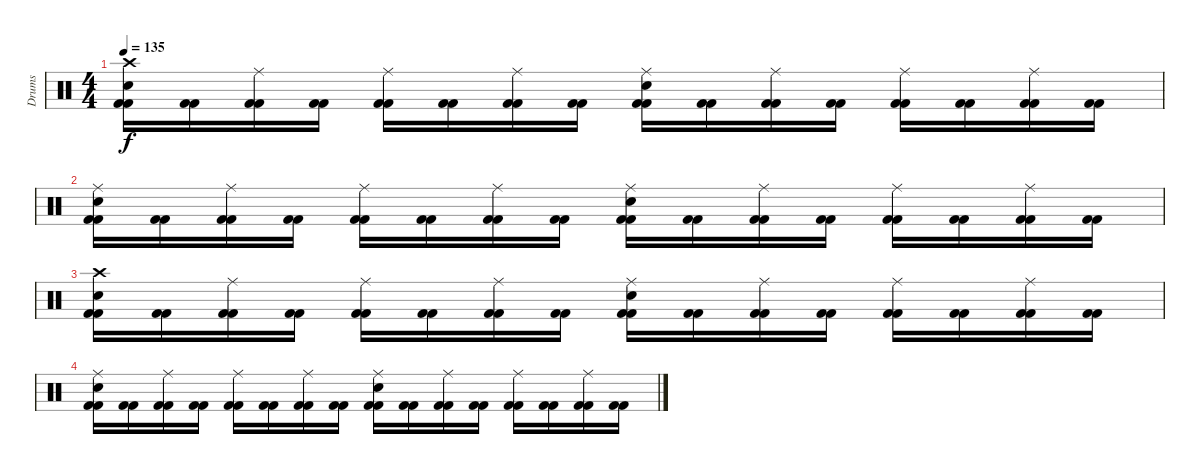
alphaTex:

\track ("Drums" "Drums") {instrument percussion}
\staff {score}
\articulation defaults
\ts (4 4)
\tempo 135
\clef neutral
\ks c
("Crash high (hit)" "Electric Snare (hit)" "Kick (hit) 2" "Kick (hit) 2").16{dy f} ("Kick (hit) 2" "Kick (hit) 2").16 ("Ride (middle)" "Kick (hit) 2" "Kick (hit) 2").16 ("Kick (hit) 2" "Kick (hit) 2").16 ("Ride (middle)" "Kick (hit) 2" "Kick (hit) 2").16 ("Kick (hit) 2" "Kick (hit) 2").16 ("Ride (middle)" "Kick (hit) 2" "Kick (hit) 2").16 ("Kick (hit) 2" "Kick (hit) 2").16 ("Ride (middle)" "Electric Snare (hit)" "Kick (hit) 2" "Kick (hit) 2").16 ("Kick (hit) 2" "Kick (hit) 2").16 ("Ride (middle)" "Kick (hit) 2" "Kick (hit) 2").16 ("Kick (hit) 2" "Kick (hit) 2").16 ("Ride (middle)" "Kick (hit) 2" "Kick (hit) 2").16 ("Kick (hit) 2" "Kick (hit) 2").16 ("Ride (middle)" "Kick (hit) 2" "Kick (hit) 2").16 ("Kick (hit) 2" "Kick (hit) 2").16 |
("Ride (middle)" "Electric Snare (hit)" "Kick (hit) 2" "Kick (hit) 2").16 ("Kick (hit) 2" "Kick (hit) 2").16 ("Ride (middle)" "Kick (hit) 2" "Kick (hit) 2").16 ("Kick (hit) 2" "Kick (hit) 2").16 ("Ride (middle)" "Kick (hit) 2" "Kick (hit) 2").16 ("Kick (hit) 2" "Kick (hit) 2").16 ("Ride (middle)" "Kick (hit) 2" "Kick (hit) 2").16 ("Kick (hit) 2" "Kick (hit) 2").16 ("Ride (middle)" "Electric Snare (hit)" "Kick (hit) 2" "Kick (hit) 2").16 ("Kick (hit) 2" "Kick (hit) 2").16 ("Ride (middle)" "Kick (hit) 2" "Kick (hit) 2").16 ("Kick (hit) 2" "Kick (hit) 2").16 ("Ride (middle)" "Kick (hit) 2" "Kick (hit) 2").16 ("Kick (hit) 2" "Kick (hit) 2").16 ("Ride (middle)" "Kick (hit) 2" "Kick (hit) 2").16 ("Kick (hit) 2" "Kick (hit) 2").16 |
("Crash high (hit)" "Electric Snare (hit)" "Kick (hit) 2" "Kick (hit) 2").16 ("Kick (hit) 2" "Kick (hit) 2").16 ("Ride (middle)" "Kick (hit) 2" "Kick (hit) 2").16 ("Kick (hit) 2" "Kick (hit) 2").16 ("Ride (middle)" "Kick (hit) 2" "Kick (hit) 2").16 ("Kick (hit) 2" "Kick (hit) 2").16 ("Ride (middle)" "Kick (hit) 2" "Kick (hit) 2").16 ("Kick (hit) 2" "Kick (hit) 2").16 ("Ride (middle)" "Electric Snare (hit)" "Kick (hit) 2" "Kick (hit) 2").16 ("Kick (hit) 2" "Kick (hit) 2").16 ("Ride (middle)" "Kick (hit) 2" "Kick (hit) 2").16 ("Kick (hit) 2" "Kick (hit) 2").16 ("Ride (middle)" "Kick (hit) 2" "Kick (hit) 2").16 ("Kick (hit) 2" "Kick (hit) 2").16 ("Ride (middle)" "Kick (hit) 2" "Kick (hit) 2").16 ("Kick (hit) 2" "Kick (hit) 2").16 |
("Ride (middle)" "Electric Snare (hit)" "Kick (hit) 2" "Kick (hit) 2").16 ("Kick (hit) 2" "Kick (hit) 2").16 ("Ride (middle)" "Kick (hit) 2" "Kick (hit) 2").16 ("Kick (hit) 2" "Kick (hit) 2").16 ("Ride (middle)" "Kick (hit) 2" "Kick (hit) 2").16 ("Kick (hit) 2" "Kick (hit) 2").16 ("Ride (middle)" "Kick (hit) 2" "Kick (hit) 2").16 ("Kick (hit) 2" "Kick (hit) 2").16 ("Ride (middle)" "Electric Snare (hit)" "Kick (hit) 2" "Kick (hit) 2").16 ("Kick (hit) 2" "Kick (hit) 2").16 ("Ride (middle)" "Kick (hit) 2" "Kick (hit) 2").16 ("Kick (hit) 2" "Kick (hit) 2").16 ("Ride (middle)" "Kick (hit) 2" "Kick (hit) 2").16 ("Kick (hit) 2" "Kick (hit) 2").16 ("Ride (middle)" "Kick (hit) 2" "Kick (hit) 2").16 ("Kick (hit) 2" "Kick (hit) 2").16
